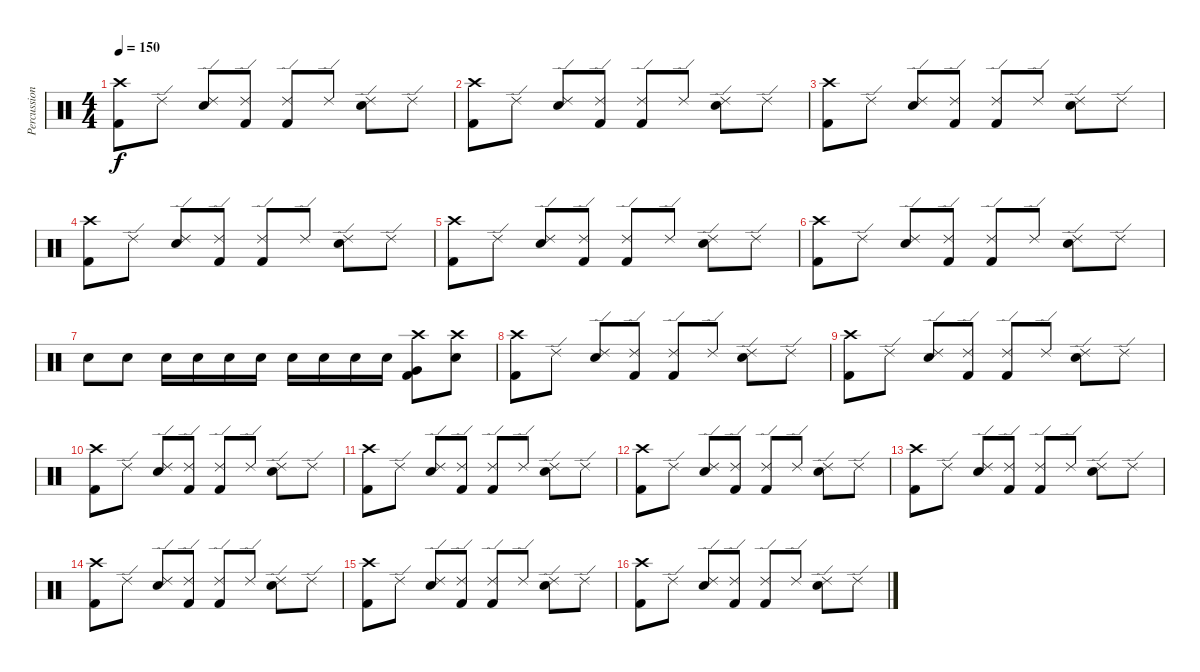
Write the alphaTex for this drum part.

\track ("Percussion" "Percussion") {instrument percussion}
\staff {score}
\articulation defaults
\ts (4 4)
\tempo 150
\clef neutral
\ks c
("Crash high (hit)" "Kick (hit) 2").8{dy f} "Ride (edge) 2".8 ("Ride (edge) 2" "Electric Snare (hit)").8 ("Ride (edge) 2" "Kick (hit) 2").8 ("Ride (edge) 2" "Kick (hit) 2").8 "Ride (edge) 2".8 ("Ride (edge) 2" "Electric Snare (hit)").8 "Ride (edge) 2".8 |
("Crash high (hit)" "Kick (hit) 2").8 "Ride (edge) 2".8 ("Ride (edge) 2" "Electric Snare (hit)").8 ("Ride (edge) 2" "Kick (hit) 2").8 ("Ride (edge) 2" "Kick (hit) 2").8 "Ride (edge) 2".8 ("Ride (edge) 2" "Electric Snare (hit)").8 "Ride (edge) 2".8 |
("Crash high (hit)" "Kick (hit) 2").8 "Ride (edge) 2".8 ("Ride (edge) 2" "Electric Snare (hit)").8 ("Ride (edge) 2" "Kick (hit) 2").8 ("Ride (edge) 2" "Kick (hit) 2").8 "Ride (edge) 2".8 ("Ride (edge) 2" "Electric Snare (hit)").8 "Ride (edge) 2".8 |
("Crash high (hit)" "Kick (hit) 2").8 "Ride (edge) 2".8 ("Ride (edge) 2" "Electric Snare (hit)").8 ("Ride (edge) 2" "Kick (hit) 2").8 ("Ride (edge) 2" "Kick (hit) 2").8 "Ride (edge) 2".8 ("Ride (edge) 2" "Electric Snare (hit)").8 "Ride (edge) 2".8 |
("Crash high (hit)" "Kick (hit) 2").8 "Ride (edge) 2".8 ("Ride (edge) 2" "Electric Snare (hit)").8 ("Ride (edge) 2" "Kick (hit) 2").8 ("Ride (edge) 2" "Kick (hit) 2").8 "Ride (edge) 2".8 ("Ride (edge) 2" "Electric Snare (hit)").8 "Ride (edge) 2".8 |
("Crash high (hit)" "Kick (hit) 2").8 "Ride (edge) 2".8 ("Ride (edge) 2" "Electric Snare (hit)").8 ("Ride (edge) 2" "Kick (hit) 2").8 ("Ride (edge) 2" "Kick (hit) 2").8 "Ride (edge) 2".8 ("Ride (edge) 2" "Electric Snare (hit)").8 "Ride (edge) 2".8 |
"Electric Snare (hit)".8 "Electric Snare (hit)".8 "Electric Snare (hit)".16 "Electric Snare (hit)".16 "Electric Snare (hit)".16 "Electric Snare (hit)".16 "Electric Snare (hit)".16 "Electric Snare (hit)".16 "Electric Snare (hit)".16 "Electric Snare (hit)".16 ("Crash high (hit)" "Very Low Tom (hit)" "Kick (hit) 2").8 ("Crash high (hit)" "Electric Snare (hit)").8 |
("Crash high (hit)" "Kick (hit) 2").8 "Ride (edge) 2".8 ("Ride (edge) 2" "Electric Snare (hit)").8 ("Ride (edge) 2" "Kick (hit) 2").8 ("Ride (edge) 2" "Kick (hit) 2").8 "Ride (edge) 2".8 ("Ride (edge) 2" "Electric Snare (hit)").8 "Ride (edge) 2".8 |
("Crash high (hit)" "Kick (hit) 2").8 "Ride (edge) 2".8 ("Ride (edge) 2" "Electric Snare (hit)").8 ("Ride (edge) 2" "Kick (hit) 2").8 ("Ride (edge) 2" "Kick (hit) 2").8 "Ride (edge) 2".8 ("Ride (edge) 2" "Electric Snare (hit)").8 "Ride (edge) 2".8 |
("Crash high (hit)" "Kick (hit) 2").8 "Ride (edge) 2".8 ("Ride (edge) 2" "Electric Snare (hit)").8 ("Ride (edge) 2" "Kick (hit) 2").8 ("Ride (edge) 2" "Kick (hit) 2").8 "Ride (edge) 2".8 ("Ride (edge) 2" "Electric Snare (hit)").8 "Ride (edge) 2".8 |
("Crash high (hit)" "Kick (hit) 2").8 "Ride (edge) 2".8 ("Ride (edge) 2" "Electric Snare (hit)").8 ("Ride (edge) 2" "Kick (hit) 2").8 ("Ride (edge) 2" "Kick (hit) 2").8 "Ride (edge) 2".8 ("Ride (edge) 2" "Electric Snare (hit)").8 "Ride (edge) 2".8 |
("Crash high (hit)" "Kick (hit) 2").8 "Ride (edge) 2".8 ("Ride (edge) 2" "Electric Snare (hit)").8 ("Ride (edge) 2" "Kick (hit) 2").8 ("Ride (edge) 2" "Kick (hit) 2").8 "Ride (edge) 2".8 ("Ride (edge) 2" "Electric Snare (hit)").8 "Ride (edge) 2".8 |
("Crash high (hit)" "Kick (hit) 2").8 "Ride (edge) 2".8 ("Ride (edge) 2" "Electric Snare (hit)").8 ("Ride (edge) 2" "Kick (hit) 2").8 ("Ride (edge) 2" "Kick (hit) 2").8 "Ride (edge) 2".8 ("Ride (edge) 2" "Electric Snare (hit)").8 "Ride (edge) 2".8 |
("Crash high (hit)" "Kick (hit) 2").8 "Ride (edge) 2".8 ("Ride (edge) 2" "Electric Snare (hit)").8 ("Ride (edge) 2" "Kick (hit) 2").8 ("Ride (edge) 2" "Kick (hit) 2").8 "Ride (edge) 2".8 ("Ride (edge) 2" "Electric Snare (hit)").8 "Ride (edge) 2".8 |
("Crash high (hit)" "Kick (hit) 2").8 "Ride (edge) 2".8 ("Ride (edge) 2" "Electric Snare (hit)").8 ("Ride (edge) 2" "Kick (hit) 2").8 ("Ride (edge) 2" "Kick (hit) 2").8 "Ride (edge) 2".8 ("Ride (edge) 2" "Electric Snare (hit)").8 "Ride (edge) 2".8 |
("Crash high (hit)" "Kick (hit) 2").8 "Ride (edge) 2".8 ("Ride (edge) 2" "Electric Snare (hit)").8 ("Ride (edge) 2" "Kick (hit) 2").8 ("Ride (edge) 2" "Kick (hit) 2").8 "Ride (edge) 2".8 ("Ride (edge) 2" "Electric Snare (hit)").8 "Ride (edge) 2".8
